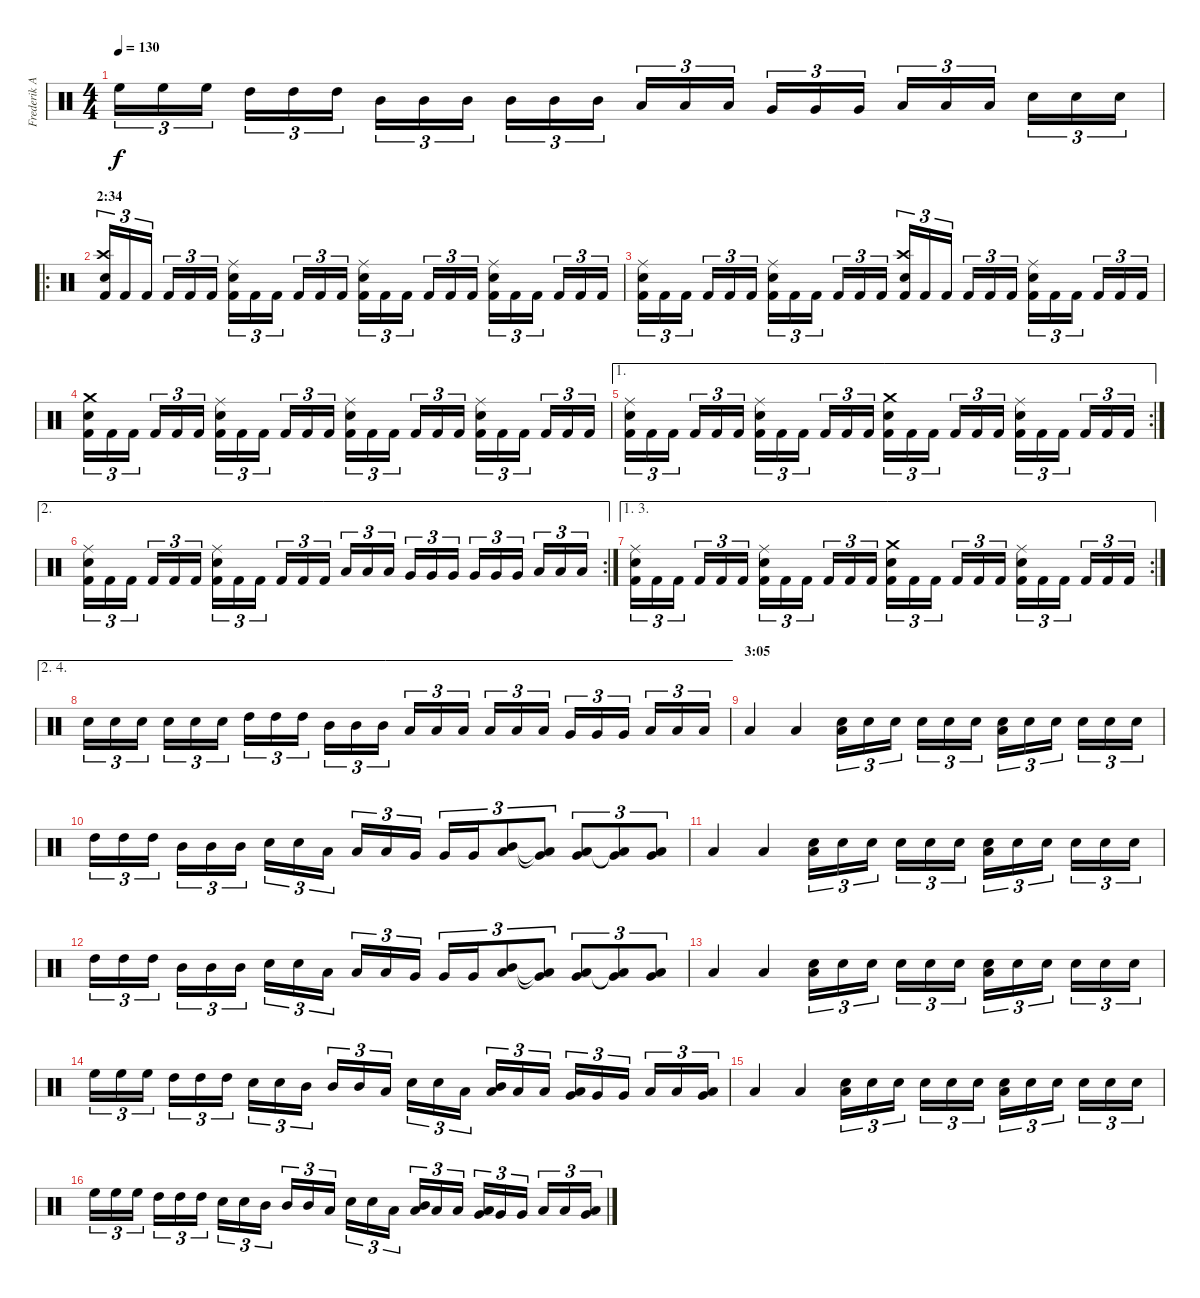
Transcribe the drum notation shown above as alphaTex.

\track ("Frederik Anderson" "Frederik A") {instrument percussion}
\staff {score}
\articulation defaults
\ts (4 4)
\tempo 130
\clef neutral
\ks c "High Floor Tom (hit)".16{tu (3 2) dy f} "High Floor Tom (hit)".16{tu (3 2)} "High Floor Tom (hit)".16{tu (3 2)} "High Tom (hit)".16{tu (3 2)} "High Tom (hit)".16{tu (3 2)} "High Tom (hit)".16{tu (3 2)} "Mid Tom (hit)".16{tu (3 2)} "Mid Tom (hit)".16{tu (3 2)} "Mid Tom (hit)".16{tu (3 2)} "Mid Tom (hit)".16{tu (3 2)} "Mid Tom (hit)".16{tu (3 2)} "Mid Tom (hit)".16{tu (3 2)} "Low Tom (hit)".16{tu (3 2)} "Low Tom (hit)".16{tu (3 2)} "Low Tom (hit)".16{tu (3 2)} "Very Low Tom (hit)".16{tu (3 2)} "Very Low Tom (hit)".16{tu (3 2)} "Very Low Tom (hit)".16{tu (3 2)} "Low Floor Tom (hit)".16{tu (3 2)} "Low Floor Tom (hit)".16{tu (3 2)} "Low Floor Tom (hit)".16{tu (3 2)} "Electric Snare (hit)".16{tu (3 2)} "Electric Snare (hit)".16{tu (3 2)} "Electric Snare (hit)".16{tu (3 2)}
|
\ro
\section ("" "2:34")
("Crash high (hit)" "Electric Snare (hit)" "Kick (hit) 2").16{tu (3 2)} "Kick (hit) 2".16{tu (3 2)} "Kick (hit) 2".16{tu (3 2)} "Kick (hit) 2".16{tu (3 2)} "Kick (hit) 2".16{tu (3 2)} "Kick (hit) 2".16{tu (3 2)} ("Ride (middle)" "Electric Snare (hit)" "Kick (hit) 2").16{tu (3 2)} "Kick (hit) 2".16{tu (3 2)} "Kick (hit) 2".16{tu (3 2)} "Kick (hit) 2".16{tu (3 2)} "Kick (hit) 2".16{tu (3 2)} "Kick (hit) 2".16{tu (3 2)} ("Ride (middle)" "Electric Snare (hit)" "Kick (hit) 2").16{tu (3 2)} "Kick (hit) 2".16{tu (3 2)} "Kick (hit) 2".16{tu (3 2)} "Kick (hit) 2".16{tu (3 2)} "Kick (hit) 2".16{tu (3 2)} "Kick (hit) 2".16{tu (3 2)} ("Ride (middle)" "Electric Snare (hit)" "Kick (hit) 2").16{tu (3 2)} "Kick (hit) 2".16{tu (3 2)} "Kick (hit) 2".16{tu (3 2)} "Kick (hit) 2".16{tu (3 2)} "Kick (hit) 2".16{tu (3 2)} "Kick (hit) 2".16{tu (3 2)} |
("Ride (middle)" "Electric Snare (hit)" "Kick (hit) 2").16{tu (3 2)} "Kick (hit) 2".16{tu (3 2)} "Kick (hit) 2".16{tu (3 2)} "Kick (hit) 2".16{tu (3 2)} "Kick (hit) 2".16{tu (3 2)} "Kick (hit) 2".16{tu (3 2)} ("Ride (middle)" "Electric Snare (hit)" "Kick (hit) 2").16{tu (3 2)} "Kick (hit) 2".16{tu (3 2)} "Kick (hit) 2".16{tu (3 2)} "Kick (hit) 2".16{tu (3 2)} "Kick (hit) 2".16{tu (3 2)} "Kick (hit) 2".16{tu (3 2)} ("Crash high (hit)" "Electric Snare (hit)" "Kick (hit) 2").16{tu (3 2)} "Kick (hit) 2".16{tu (3 2)} "Kick (hit) 2".16{tu (3 2)} "Kick (hit) 2".16{tu (3 2)} "Kick (hit) 2".16{tu (3 2)} "Kick (hit) 2".16{tu (3 2)} ("Ride (middle)" "Electric Snare (hit)" "Kick (hit) 2").16{tu (3 2)} "Kick (hit) 2".16{tu (3 2)} "Kick (hit) 2".16{tu (3 2)} "Kick (hit) 2".16{tu (3 2)} "Kick (hit) 2".16{tu (3 2)} "Kick (hit) 2".16{tu (3 2)} |
("Crash medium (hit)" "Electric Snare (hit)" "Kick (hit) 2").16{tu (3 2)} "Kick (hit) 2".16{tu (3 2)} "Kick (hit) 2".16{tu (3 2)} "Kick (hit) 2".16{tu (3 2)} "Kick (hit) 2".16{tu (3 2)} "Kick (hit) 2".16{tu (3 2)} ("Ride (middle)" "Electric Snare (hit)" "Kick (hit) 2").16{tu (3 2)} "Kick (hit) 2".16{tu (3 2)} "Kick (hit) 2".16{tu (3 2)} "Kick (hit) 2".16{tu (3 2)} "Kick (hit) 2".16{tu (3 2)} "Kick (hit) 2".16{tu (3 2)} ("Ride (middle)" "Electric Snare (hit)" "Kick (hit) 2").16{tu (3 2)} "Kick (hit) 2".16{tu (3 2)} "Kick (hit) 2".16{tu (3 2)} "Kick (hit) 2".16{tu (3 2)} "Kick (hit) 2".16{tu (3 2)} "Kick (hit) 2".16{tu (3 2)} ("Ride (middle)" "Electric Snare (hit)" "Kick (hit) 2").16{tu (3 2)} "Kick (hit) 2".16{tu (3 2)} "Kick (hit) 2".16{tu (3 2)} "Kick (hit) 2".16{tu (3 2)} "Kick (hit) 2".16{tu (3 2)} "Kick (hit) 2".16{tu (3 2)} |
\ae 1
\rc 2
("Ride (middle)" "Electric Snare (hit)" "Kick (hit) 2").16{tu (3 2)} "Kick (hit) 2".16{tu (3 2)} "Kick (hit) 2".16{tu (3 2)} "Kick (hit) 2".16{tu (3 2)} "Kick (hit) 2".16{tu (3 2)} "Kick (hit) 2".16{tu (3 2)} ("Ride (middle)" "Electric Snare (hit)" "Kick (hit) 2").16{tu (3 2)} "Kick (hit) 2".16{tu (3 2)} "Kick (hit) 2".16{tu (3 2)} "Kick (hit) 2".16{tu (3 2)} "Kick (hit) 2".16{tu (3 2)} "Kick (hit) 2".16{tu (3 2)} ("Crash medium (hit)" "Electric Snare (hit)" "Kick (hit) 2").16{tu (3 2)} "Kick (hit) 2".16{tu (3 2)} "Kick (hit) 2".16{tu (3 2)} "Kick (hit) 2".16{tu (3 2)} "Kick (hit) 2".16{tu (3 2)} "Kick (hit) 2".16{tu (3 2)} ("Ride (middle)" "Electric Snare (hit)" "Kick (hit) 2").16{tu (3 2)} "Kick (hit) 2".16{tu (3 2)} "Kick (hit) 2".16{tu (3 2)} "Kick (hit) 2".16{tu (3 2)} "Kick (hit) 2".16{tu (3 2)} "Kick (hit) 2".16{tu (3 2)} |
\ae 2
\rc 2
("Ride (middle)" "Electric Snare (hit)" "Kick (hit) 2").16{tu (3 2)} "Kick (hit) 2".16{tu (3 2)} "Kick (hit) 2".16{tu (3 2)} "Kick (hit) 2".16{tu (3 2)} "Kick (hit) 2".16{tu (3 2)} "Kick (hit) 2".16{tu (3 2)} ("Ride (middle)" "Electric Snare (hit)" "Kick (hit) 2").16{tu (3 2)} "Kick (hit) 2".16{tu (3 2)} "Kick (hit) 2".16{tu (3 2)} "Kick (hit) 2".16{tu (3 2)} "Kick (hit) 2".16{tu (3 2)} "Kick (hit) 2".16{tu (3 2)} "Low Tom (hit)".16{tu (3 2)} "Low Tom (hit)".16{tu (3 2)} "Low Tom (hit)".16{tu (3 2)} "Very Low Tom (hit)".16{tu (3 2)} "Very Low Tom (hit)".16{tu (3 2)} "Very Low Tom (hit)".16{tu (3 2)} "Very Low Tom (hit)".16{tu (3 2)} "Very Low Tom (hit)".16{tu (3 2)} "Very Low Tom (hit)".16{tu (3 2)} "Low Floor Tom (hit)".16{tu (3 2)} "Low Floor Tom (hit)".16{tu (3 2)} "Low Floor Tom (hit)".16{tu (3 2)} |
\ae (1 3)
\rc 2
("Ride (middle)" "Electric Snare (hit)" "Kick (hit) 2").16{tu (3 2)} "Kick (hit) 2".16{tu (3 2)} "Kick (hit) 2".16{tu (3 2)} "Kick (hit) 2".16{tu (3 2)} "Kick (hit) 2".16{tu (3 2)} "Kick (hit) 2".16{tu (3 2)} ("Ride (middle)" "Electric Snare (hit)" "Kick (hit) 2").16{tu (3 2)} "Kick (hit) 2".16{tu (3 2)} "Kick (hit) 2".16{tu (3 2)} "Kick (hit) 2".16{tu (3 2)} "Kick (hit) 2".16{tu (3 2)} "Kick (hit) 2".16{tu (3 2)} ("Crash medium (hit)" "Electric Snare (hit)" "Kick (hit) 2").16{tu (3 2)} "Kick (hit) 2".16{tu (3 2)} "Kick (hit) 2".16{tu (3 2)} "Kick (hit) 2".16{tu (3 2)} "Kick (hit) 2".16{tu (3 2)} "Kick (hit) 2".16{tu (3 2)} ("Ride (middle)" "Electric Snare (hit)" "Kick (hit) 2").16{tu (3 2)} "Kick (hit) 2".16{tu (3 2)} "Kick (hit) 2".16{tu (3 2)} "Kick (hit) 2".16{tu (3 2)} "Kick (hit) 2".16{tu (3 2)} "Kick (hit) 2".16{tu (3 2)} |
\ae (2 4)
"Electric Snare (hit)".16{tu (3 2)} "Electric Snare (hit)".16{tu (3 2)} "Electric Snare (hit)".16{tu (3 2)} "Electric Snare (hit)".16{tu (3 2)} "Electric Snare (hit)".16{tu (3 2)} "Electric Snare (hit)".16{tu (3 2)} "High Tom (hit)".16{tu (3 2)} "High Tom (hit)".16{tu (3 2)} "High Tom (hit)".16{tu (3 2)} "Mid Tom (hit)".16{tu (3 2)} "Mid Tom (hit)".16{tu (3 2)} "Mid Tom (hit)".16{tu (3 2)} "Low Tom (hit)".16{tu (3 2)} "Low Tom (hit)".16{tu (3 2)} "Low Tom (hit)".16{tu (3 2)} "Low Tom (hit)".16{tu (3 2)} "Low Tom (hit)".16{tu (3 2)} "Low Tom (hit)".16{tu (3 2)} "Very Low Tom (hit)".16{tu (3 2)} "Very Low Tom (hit)".16{tu (3 2)} "Very Low Tom (hit)".16{tu (3 2)} "Low Floor Tom (hit)".16{tu (3 2)} "Low Floor Tom (hit)".16{tu (3 2)} "Low Floor Tom (hit)".16{tu (3 2)} |
\section ("" "3:05")
"Low Floor Tom (hit)".4 "Low Floor Tom (hit)".4 ("Low Floor Tom (hit)" "Electric Snare (hit)").16{tu (3 2)} "Electric Snare (hit)".16{tu (3 2)} "Electric Snare (hit)".16{tu (3 2)} "Electric Snare (hit)".16{tu (3 2)} "Electric Snare (hit)".16{tu (3 2)} "Electric Snare (hit)".16{tu (3 2)} ("Low Floor Tom (hit)" "Electric Snare (hit)").16{tu (3 2)} "Electric Snare (hit)".16{tu (3 2)} "Electric Snare (hit)".16{tu (3 2)} "Electric Snare (hit)".16{tu (3 2)} "Electric Snare (hit)".16{tu (3 2)} "Electric Snare (hit)".16{tu (3 2)} |
"High Tom (hit)".16{tu (3 2)} "High Tom (hit)".16{tu (3 2)} "High Tom (hit)".16{tu (3 2)} "Mid Tom (hit)".16{tu (3 2)} "Mid Tom (hit)".16{tu (3 2)} "Mid Tom (hit)".16{tu (3 2)} "Electric Snare (hit)".16{tu (3 2)} "Electric Snare (hit)".16{tu (3 2)} "Low Tom (hit)".16{tu (3 2)} "Low Tom (hit)".16{tu (3 2)} "Low Tom (hit)".16{tu (3 2)} "Very Low Tom (hit)".16{tu (3 2)} "Very Low Tom (hit)".16{tu (3 2)} "Very Low Tom (hit)".16{tu (3 2)} ("Mid Tom (hit)" "Low Tom (hit)").8{tu (3 2)} ("Low Tom (hit)"{t} "Very Low Tom (hit)"{t}).8{tu (3 2)} ("Low Tom (hit)" "Very Low Tom (hit)").8{tu (3 2)} ("Very Low Tom (hit)"{t} "Low Floor Tom (hit)"{t}).8{tu (3 2)} ("Very Low Tom (hit)" "Low Floor Tom (hit)").8{tu (3 2)} |
"Low Floor Tom (hit)".4 "Low Floor Tom (hit)".4 ("Low Floor Tom (hit)" "Electric Snare (hit)").16{tu (3 2)} "Electric Snare (hit)".16{tu (3 2)} "Electric Snare (hit)".16{tu (3 2)} "Electric Snare (hit)".16{tu (3 2)} "Electric Snare (hit)".16{tu (3 2)} "Electric Snare (hit)".16{tu (3 2)} ("Low Floor Tom (hit)" "Electric Snare (hit)").16{tu (3 2)} "Electric Snare (hit)".16{tu (3 2)} "Electric Snare (hit)".16{tu (3 2)} "Electric Snare (hit)".16{tu (3 2)} "Electric Snare (hit)".16{tu (3 2)} "Electric Snare (hit)".16{tu (3 2)} |
"High Tom (hit)".16{tu (3 2)} "High Tom (hit)".16{tu (3 2)} "High Tom (hit)".16{tu (3 2)} "Mid Tom (hit)".16{tu (3 2)} "Mid Tom (hit)".16{tu (3 2)} "Mid Tom (hit)".16{tu (3 2)} "Electric Snare (hit)".16{tu (3 2)} "Electric Snare (hit)".16{tu (3 2)} "Low Tom (hit)".16{tu (3 2)} "Low Tom (hit)".16{tu (3 2)} "Low Tom (hit)".16{tu (3 2)} "Very Low Tom (hit)".16{tu (3 2)} "Very Low Tom (hit)".16{tu (3 2)} "Very Low Tom (hit)".16{tu (3 2)} ("Mid Tom (hit)" "Low Tom (hit)").8{tu (3 2)} ("Low Tom (hit)"{t} "Very Low Tom (hit)"{t}).8{tu (3 2)} ("Low Tom (hit)" "Very Low Tom (hit)").8{tu (3 2)} ("Very Low Tom (hit)"{t} "Low Floor Tom (hit)"{t}).8{tu (3 2)} ("Very Low Tom (hit)" "Low Floor Tom (hit)").8{tu (3 2)} |
"Low Floor Tom (hit)".4 "Low Floor Tom (hit)".4 ("Low Floor Tom (hit)" "Electric Snare (hit)").16{tu (3 2)} "Electric Snare (hit)".16{tu (3 2)} "Electric Snare (hit)".16{tu (3 2)} "Electric Snare (hit)".16{tu (3 2)} "Electric Snare (hit)".16{tu (3 2)} "Electric Snare (hit)".16{tu (3 2)} ("Low Floor Tom (hit)" "Electric Snare (hit)").16{tu (3 2)} "Electric Snare (hit)".16{tu (3 2)} "Electric Snare (hit)".16{tu (3 2)} "Electric Snare (hit)".16{tu (3 2)} "Electric Snare (hit)".16{tu (3 2)} "Electric Snare (hit)".16{tu (3 2)} |
"High Floor Tom (hit)".16{tu (3 2)} "High Floor Tom (hit)".16{tu (3 2)} "High Floor Tom (hit)".16{tu (3 2)} "High Tom (hit)".16{tu (3 2)} "High Tom (hit)".16{tu (3 2)} "High Tom (hit)".16{tu (3 2)} "Electric Snare (hit)".16{tu (3 2)} "Electric Snare (hit)".16{tu (3 2)} "Mid Tom (hit)".16{tu (3 2)} "Mid Tom (hit)".16{tu (3 2)} "Mid Tom (hit)".16{tu (3 2)} "Low Tom (hit)".16{tu (3 2)} "Electric Snare (hit)".16{tu (3 2)} "Electric Snare (hit)".16{tu (3 2)} "Low Tom (hit)".16{tu (3 2)} ("Mid Tom (hit)" "Low Tom (hit)").16{tu (3 2)} "Low Tom (hit)".16{tu (3 2)} "Low Tom (hit)".16{tu (3 2)} ("Low Tom (hit)" "Very Low Tom (hit)").16{tu (3 2)} "Very Low Tom (hit)".16{tu (3 2)} "Very Low Tom (hit)".16{tu (3 2)} "Low Floor Tom (hit)".16{tu (3 2)} "Low Floor Tom (hit)".16{tu (3 2)} ("Very Low Tom (hit)" "Low Floor Tom (hit)").16{tu (3 2)} |
"Low Floor Tom (hit)".4 "Low Floor Tom (hit)".4 ("Low Floor Tom (hit)" "Electric Snare (hit)").16{tu (3 2)} "Electric Snare (hit)".16{tu (3 2)} "Electric Snare (hit)".16{tu (3 2)} "Electric Snare (hit)".16{tu (3 2)} "Electric Snare (hit)".16{tu (3 2)} "Electric Snare (hit)".16{tu (3 2)} ("Low Floor Tom (hit)" "Electric Snare (hit)").16{tu (3 2)} "Electric Snare (hit)".16{tu (3 2)} "Electric Snare (hit)".16{tu (3 2)} "Electric Snare (hit)".16{tu (3 2)} "Electric Snare (hit)".16{tu (3 2)} "Electric Snare (hit)".16{tu (3 2)} |
"High Floor Tom (hit)".16{tu (3 2)} "High Floor Tom (hit)".16{tu (3 2)} "High Floor Tom (hit)".16{tu (3 2)} "High Tom (hit)".16{tu (3 2)} "High Tom (hit)".16{tu (3 2)} "High Tom (hit)".16{tu (3 2)} "Electric Snare (hit)".16{tu (3 2)} "Electric Snare (hit)".16{tu (3 2)} "Mid Tom (hit)".16{tu (3 2)} "Mid Tom (hit)".16{tu (3 2)} "Mid Tom (hit)".16{tu (3 2)} "Low Tom (hit)".16{tu (3 2)} "Electric Snare (hit)".16{tu (3 2)} "Electric Snare (hit)".16{tu (3 2)} "Low Tom (hit)".16{tu (3 2)} ("Mid Tom (hit)" "Low Tom (hit)").16{tu (3 2)} "Low Tom (hit)".16{tu (3 2)} "Low Tom (hit)".16{tu (3 2)} ("Low Tom (hit)" "Very Low Tom (hit)").16{tu (3 2)} "Very Low Tom (hit)".16{tu (3 2)} "Very Low Tom (hit)".16{tu (3 2)} "Low Floor Tom (hit)".16{tu (3 2)} "Low Floor Tom (hit)".16{tu (3 2)} ("Very Low Tom (hit)" "Low Floor Tom (hit)").16{tu (3 2)}
